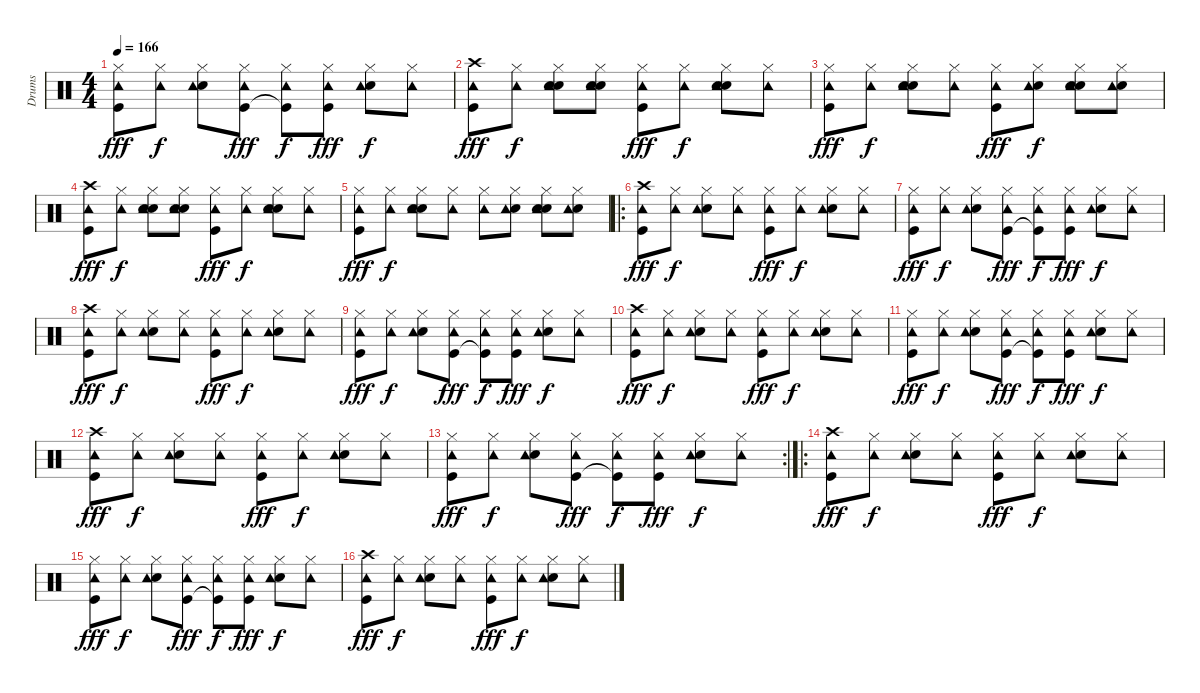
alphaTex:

\track ("Drums" "Drums") {instrument percussion}
\staff {score}
\articulation defaults
\ts (4 4)
\tempo 166
\clef neutral
\ks c
("Hi-Hat (closed)" "Tambourine (hit)" "Kick (hit)").8{dy fff} ("Hi-Hat (closed)" "Tambourine (hit)").8{dy f} ("Hi-Hat (closed)" "Snare (hit) 2" "Tambourine (hit)").8 ("Hi-Hat (closed)" "Tambourine (hit)" "Kick (hit)").8{dy fff} ("Hi-Hat (closed)" "Tambourine (hit)" "Kick (hit)"{t}).8{dy f} ("Hi-Hat (closed)" "Tambourine (hit)" "Kick (hit)").8{dy fff} ("Hi-Hat (closed)" "Snare (hit) 2" "Tambourine (hit)").8{dy f} ("Hi-Hat (closed)" "Tambourine (hit)").8 |
("Crash high (hit)" "Tambourine (hit)" "Kick (hit)").8{dy fff} ("Hi-Hat (closed)" "Tambourine (hit)").8{dy f} ("Hi-Hat (closed)" "Hand Clap (hit)" "Snare (hit) 2" "Tambourine (hit)").8 ("Hi-Hat (closed)" "Hand Clap (hit)" "Snare (hit) 2" "Tambourine (hit)").8 ("Hi-Hat (closed)" "Tambourine (hit)" "Kick (hit)").8{dy fff} ("Hi-Hat (closed)" "Tambourine (hit)").8{dy f} ("Hi-Hat (closed)" "Hand Clap (hit)" "Snare (hit) 2" "Tambourine (hit)").8 ("Hi-Hat (closed)" "Tambourine (hit)").8 |
("Hi-Hat (closed)" "Tambourine (hit)" "Kick (hit)").8{dy fff} ("Hi-Hat (closed)" "Tambourine (hit)").8{dy f} ("Hi-Hat (closed)" "Hand Clap (hit)" "Snare (hit) 2" "Tambourine (hit)").8 ("Hi-Hat (closed)" "Tambourine (hit)").8 ("Hi-Hat (closed)" "Tambourine (hit)" "Kick (hit)").8{dy fff} ("Hi-Hat (closed)" "Snare (hit) 2" "Tambourine (hit)").8{dy f} ("Hi-Hat (closed)" "Hand Clap (hit)" "Snare (hit) 2" "Tambourine (hit)").8 ("Hi-Hat (closed)" "Snare (hit) 2" "Tambourine (hit)").8 |
("Crash high (hit)" "Tambourine (hit)" "Kick (hit)").8{dy fff} ("Hi-Hat (closed)" "Tambourine (hit)").8{dy f} ("Hi-Hat (closed)" "Hand Clap (hit)" "Snare (hit) 2" "Tambourine (hit)").8 ("Hi-Hat (closed)" "Hand Clap (hit)" "Snare (hit) 2" "Tambourine (hit)").8 ("Hi-Hat (closed)" "Tambourine (hit)" "Kick (hit)").8{dy fff} ("Hi-Hat (closed)" "Tambourine (hit)").8{dy f} ("Hi-Hat (closed)" "Hand Clap (hit)" "Snare (hit) 2" "Tambourine (hit)").8 ("Hi-Hat (closed)" "Tambourine (hit)").8 |
("Hi-Hat (closed)" "Tambourine (hit)" "Kick (hit)").8{dy fff} ("Hi-Hat (closed)" "Tambourine (hit)").8{dy f} ("Hi-Hat (closed)" "Hand Clap (hit)" "Snare (hit) 2" "Tambourine (hit)").8 ("Hi-Hat (closed)" "Tambourine (hit)").8 ("Hi-Hat (closed)" "Tambourine (hit)").8 ("Hi-Hat (closed)" "Snare (hit) 2" "Tambourine (hit)").8 ("Hi-Hat (closed)" "Hand Clap (hit)" "Snare (hit) 2" "Tambourine (hit)").8 ("Hi-Hat (closed)" "Snare (hit) 2" "Tambourine (hit)").8 |
\ro
("Crash high (hit)" "Tambourine (hit)" "Kick (hit)").8{dy fff} ("Hi-Hat (closed)" "Tambourine (hit)").8{dy f} ("Hi-Hat (closed)" "Snare (hit) 2" "Tambourine (hit)").8 ("Hi-Hat (closed)" "Tambourine (hit)").8 ("Hi-Hat (closed)" "Tambourine (hit)" "Kick (hit)").8{dy fff} ("Hi-Hat (closed)" "Tambourine (hit)").8{dy f} ("Hi-Hat (closed)" "Snare (hit) 2" "Tambourine (hit)").8 ("Hi-Hat (closed)" "Tambourine (hit)").8 |
("Hi-Hat (closed)" "Tambourine (hit)" "Kick (hit)").8{dy fff} ("Hi-Hat (closed)" "Tambourine (hit)").8{dy f} ("Hi-Hat (closed)" "Snare (hit) 2" "Tambourine (hit)").8 ("Hi-Hat (closed)" "Tambourine (hit)" "Kick (hit)").8{dy fff} ("Hi-Hat (closed)" "Tambourine (hit)" "Kick (hit)"{t}).8{dy f} ("Hi-Hat (closed)" "Tambourine (hit)" "Kick (hit)").8{dy fff} ("Hi-Hat (closed)" "Snare (hit) 2" "Tambourine (hit)").8{dy f} ("Hi-Hat (closed)" "Tambourine (hit)").8 |
("Crash high (hit)" "Tambourine (hit)" "Kick (hit)").8{dy fff} ("Hi-Hat (closed)" "Tambourine (hit)").8{dy f} ("Hi-Hat (closed)" "Snare (hit) 2" "Tambourine (hit)").8 ("Hi-Hat (closed)" "Tambourine (hit)").8 ("Hi-Hat (closed)" "Tambourine (hit)" "Kick (hit)").8{dy fff} ("Hi-Hat (closed)" "Tambourine (hit)").8{dy f} ("Hi-Hat (closed)" "Snare (hit) 2" "Tambourine (hit)").8 ("Hi-Hat (closed)" "Tambourine (hit)").8 |
("Hi-Hat (closed)" "Tambourine (hit)" "Kick (hit)").8{dy fff} ("Hi-Hat (closed)" "Tambourine (hit)").8{dy f} ("Hi-Hat (closed)" "Snare (hit) 2" "Tambourine (hit)").8 ("Hi-Hat (closed)" "Tambourine (hit)" "Kick (hit)").8{dy fff} ("Hi-Hat (closed)" "Tambourine (hit)" "Kick (hit)"{t}).8{dy f} ("Hi-Hat (closed)" "Tambourine (hit)" "Kick (hit)").8{dy fff} ("Hi-Hat (closed)" "Snare (hit) 2" "Tambourine (hit)").8{dy f} ("Hi-Hat (closed)" "Tambourine (hit)").8 |
("Crash high (hit)" "Tambourine (hit)" "Kick (hit)").8{dy fff} ("Hi-Hat (closed)" "Tambourine (hit)").8{dy f} ("Hi-Hat (closed)" "Snare (hit) 2" "Tambourine (hit)").8 ("Hi-Hat (closed)" "Tambourine (hit)").8 ("Hi-Hat (closed)" "Tambourine (hit)" "Kick (hit)").8{dy fff} ("Hi-Hat (closed)" "Tambourine (hit)").8{dy f} ("Hi-Hat (closed)" "Snare (hit) 2" "Tambourine (hit)").8 ("Hi-Hat (closed)" "Tambourine (hit)").8 |
("Hi-Hat (closed)" "Tambourine (hit)" "Kick (hit)").8{dy fff} ("Hi-Hat (closed)" "Tambourine (hit)").8{dy f} ("Hi-Hat (closed)" "Snare (hit) 2" "Tambourine (hit)").8 ("Hi-Hat (closed)" "Tambourine (hit)" "Kick (hit)").8{dy fff} ("Hi-Hat (closed)" "Tambourine (hit)" "Kick (hit)"{t}).8{dy f} ("Hi-Hat (closed)" "Tambourine (hit)" "Kick (hit)").8{dy fff} ("Hi-Hat (closed)" "Snare (hit) 2" "Tambourine (hit)").8{dy f} ("Hi-Hat (closed)" "Tambourine (hit)").8 |
("Crash high (hit)" "Tambourine (hit)" "Kick (hit)").8{dy fff} ("Hi-Hat (closed)" "Tambourine (hit)").8{dy f} ("Hi-Hat (closed)" "Snare (hit) 2" "Tambourine (hit)").8 ("Hi-Hat (closed)" "Tambourine (hit)").8 ("Hi-Hat (closed)" "Tambourine (hit)" "Kick (hit)").8{dy fff} ("Hi-Hat (closed)" "Tambourine (hit)").8{dy f} ("Hi-Hat (closed)" "Snare (hit) 2" "Tambourine (hit)").8 ("Hi-Hat (closed)" "Tambourine (hit)").8 |
\rc 2
("Hi-Hat (closed)" "Tambourine (hit)" "Kick (hit)").8{dy fff} ("Hi-Hat (closed)" "Tambourine (hit)").8{dy f} ("Hi-Hat (closed)" "Snare (hit) 2" "Tambourine (hit)").8 ("Hi-Hat (closed)" "Tambourine (hit)" "Kick (hit)").8{dy fff} ("Hi-Hat (closed)" "Tambourine (hit)" "Kick (hit)"{t}).8{dy f} ("Hi-Hat (closed)" "Tambourine (hit)" "Kick (hit)").8{dy fff} ("Hi-Hat (closed)" "Snare (hit) 2" "Tambourine (hit)").8{dy f} ("Hi-Hat (closed)" "Tambourine (hit)").8 |
\ro
("Crash high (hit)" "Tambourine (hit)" "Kick (hit)").8{dy fff} ("Hi-Hat (closed)" "Tambourine (hit)").8{dy f} ("Hi-Hat (closed)" "Snare (hit) 2" "Tambourine (hit)").8 ("Hi-Hat (closed)" "Tambourine (hit)").8 ("Hi-Hat (closed)" "Tambourine (hit)" "Kick (hit)").8{dy fff} ("Hi-Hat (closed)" "Tambourine (hit)").8{dy f} ("Hi-Hat (closed)" "Snare (hit) 2" "Tambourine (hit)").8 ("Hi-Hat (closed)" "Tambourine (hit)").8 |
("Hi-Hat (closed)" "Tambourine (hit)" "Kick (hit)").8{dy fff} ("Hi-Hat (closed)" "Tambourine (hit)").8{dy f} ("Hi-Hat (closed)" "Snare (hit) 2" "Tambourine (hit)").8 ("Hi-Hat (closed)" "Tambourine (hit)" "Kick (hit)").8{dy fff} ("Hi-Hat (closed)" "Tambourine (hit)" "Kick (hit)"{t}).8{dy f} ("Hi-Hat (closed)" "Tambourine (hit)" "Kick (hit)").8{dy fff} ("Hi-Hat (closed)" "Snare (hit) 2" "Tambourine (hit)").8{dy f} ("Hi-Hat (closed)" "Tambourine (hit)").8 |
("Crash high (hit)" "Tambourine (hit)" "Kick (hit)").8{dy fff} ("Hi-Hat (closed)" "Tambourine (hit)").8{dy f} ("Hi-Hat (closed)" "Snare (hit) 2" "Tambourine (hit)").8 ("Hi-Hat (closed)" "Tambourine (hit)").8 ("Hi-Hat (closed)" "Tambourine (hit)" "Kick (hit)").8{dy fff} ("Hi-Hat (closed)" "Tambourine (hit)").8{dy f} ("Hi-Hat (closed)" "Snare (hit) 2" "Tambourine (hit)").8 ("Hi-Hat (closed)" "Tambourine (hit)").8
